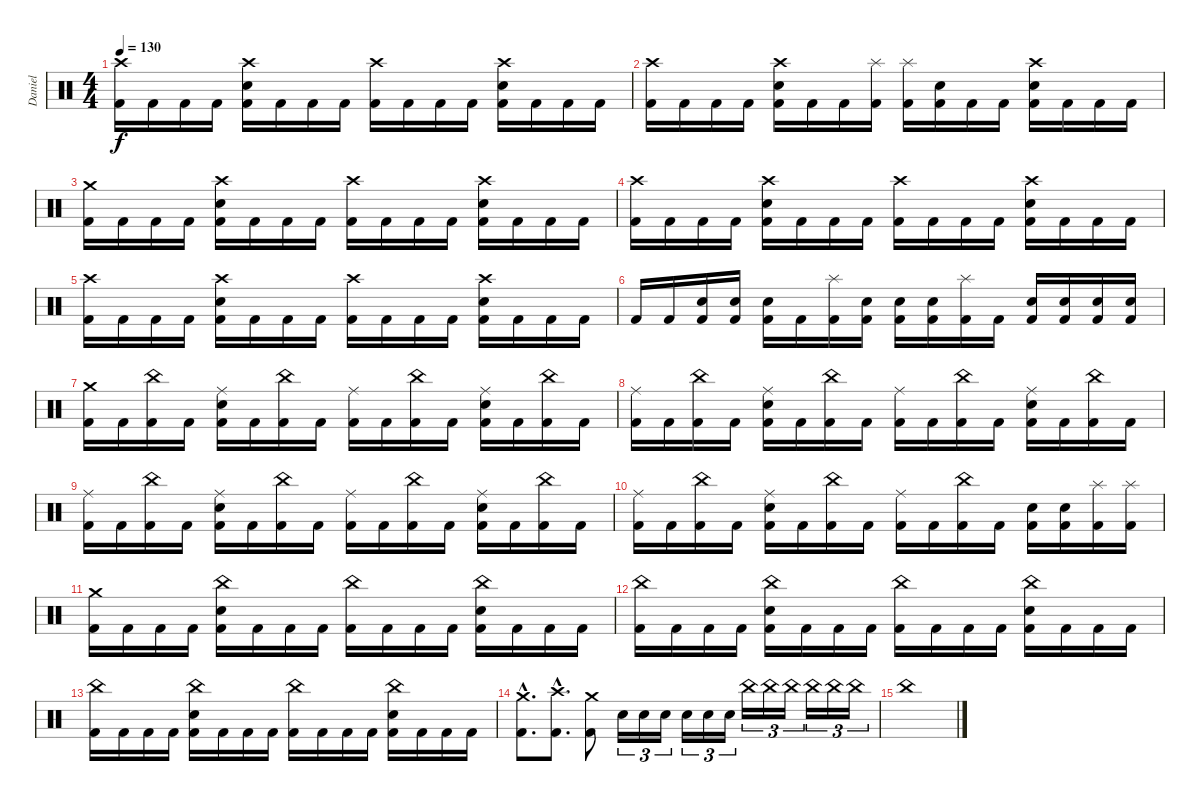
\track ("Daniel" "Daniel") {instrument percussion}
\staff {score}
\articulation defaults
\ts (4 4)
\tempo 130
\clef neutral
\ks c
("Crash high (hit)" "Kick (hit) 2").16{dy f} "Kick (hit) 2".16 "Kick (hit) 2".16 "Kick (hit) 2".16 ("Crash high (hit)" "Electric Snare (hit)" "Kick (hit) 2").16 "Kick (hit) 2".16 "Kick (hit) 2".16 "Kick (hit) 2".16 ("Crash high (hit)" "Kick (hit) 2").16 "Kick (hit) 2".16 "Kick (hit) 2".16 "Kick (hit) 2".16 ("Crash high (hit)" "Electric Snare (hit)" "Kick (hit) 2").16 "Kick (hit) 2".16 "Kick (hit) 2".16 "Kick (hit) 2".16 |
("Crash high (hit)" "Kick (hit) 2").16 "Kick (hit) 2".16 "Kick (hit) 2".16 "Kick (hit) 2".16 ("Crash high (hit)" "Electric Snare (hit)" "Kick (hit) 2").16 "Kick (hit) 2".16 "Kick (hit) 2".16 ("Splash (hit)" "Kick (hit) 2").16 ("Splash (hit)" "Kick (hit) 2").16 ("Electric Snare (hit)" "Kick (hit) 2").16 "Kick (hit) 2".16 "Kick (hit) 2".16 ("Crash high (hit)" "Electric Snare (hit)" "Kick (hit) 2").16 "Kick (hit) 2".16 "Kick (hit) 2".16 "Kick (hit) 2".16 |
("Crash medium (hit)" "Kick (hit) 2").16 "Kick (hit) 2".16 "Kick (hit) 2".16 "Kick (hit) 2".16 ("Crash high (hit)" "Electric Snare (hit)" "Kick (hit) 2").16 "Kick (hit) 2".16 "Kick (hit) 2".16 "Kick (hit) 2".16 ("Crash high (hit)" "Kick (hit) 2").16 "Kick (hit) 2".16 "Kick (hit) 2".16 "Kick (hit) 2".16 ("Crash high (hit)" "Electric Snare (hit)" "Kick (hit) 2").16 "Kick (hit) 2".16 "Kick (hit) 2".16 "Kick (hit) 2".16 |
("Crash high (hit)" "Kick (hit) 2").16 "Kick (hit) 2".16 "Kick (hit) 2".16 "Kick (hit) 2".16 ("Crash high (hit)" "Electric Snare (hit)" "Kick (hit) 2").16 "Kick (hit) 2".16 "Kick (hit) 2".16 "Kick (hit) 2".16 ("Crash high (hit)" "Kick (hit) 2").16 "Kick (hit) 2".16 "Kick (hit) 2".16 "Kick (hit) 2".16 ("Crash high (hit)" "Electric Snare (hit)" "Kick (hit) 2").16 "Kick (hit) 2".16 "Kick (hit) 2".16 "Kick (hit) 2".16 |
("Crash high (hit)" "Kick (hit) 2").16 "Kick (hit) 2".16 "Kick (hit) 2".16 "Kick (hit) 2".16 ("Crash high (hit)" "Electric Snare (hit)" "Kick (hit) 2").16 "Kick (hit) 2".16 "Kick (hit) 2".16 "Kick (hit) 2".16 ("Crash high (hit)" "Kick (hit) 2").16 "Kick (hit) 2".16 "Kick (hit) 2".16 "Kick (hit) 2".16 ("Crash high (hit)" "Electric Snare (hit)" "Kick (hit) 2").16 "Kick (hit) 2".16 "Kick (hit) 2".16 "Kick (hit) 2".16 |
"Kick (hit) 2".16 "Kick (hit) 2".16 ("Electric Snare (hit)" "Kick (hit) 2").16 ("Electric Snare (hit)" "Kick (hit) 2").16 ("Electric Snare (hit)" "Kick (hit) 2").16 "Kick (hit) 2".16 ("Splash (hit)" "Kick (hit) 2").16 ("Electric Snare (hit)" "Kick (hit) 2").16 ("Electric Snare (hit)" "Kick (hit) 2").16 ("Electric Snare (hit)" "Kick (hit) 2").16 ("Splash (hit)" "Kick (hit) 2").16 "Kick (hit) 2".16 ("Electric Snare (hit)" "Kick (hit) 2").16 ("Electric Snare (hit)" "Kick (hit) 2").16 ("Electric Snare (hit)" "Kick (hit) 2").16 ("Electric Snare (hit)" "Kick (hit) 2").16 |
("Crash medium (hit)" "Kick (hit) 2").16 "Kick (hit) 2".16 ("China (hit)" "Kick (hit) 2").16 "Kick (hit) 2".16 ("Ride (middle)" "Electric Snare (hit)" "Kick (hit) 2").16 "Kick (hit) 2".16 ("China (hit)" "Kick (hit) 2").16 "Kick (hit) 2".16 ("Ride (middle)" "Kick (hit) 2").16 "Kick (hit) 2".16 ("China (hit)" "Kick (hit) 2").16 "Kick (hit) 2".16 ("Ride (middle)" "Electric Snare (hit)" "Kick (hit) 2").16 "Kick (hit) 2".16 ("China (hit)" "Kick (hit) 2").16 "Kick (hit) 2".16 |
("Ride (middle)" "Kick (hit) 2").16 "Kick (hit) 2".16 ("China (hit)" "Kick (hit) 2").16 "Kick (hit) 2".16 ("Ride (middle)" "Electric Snare (hit)" "Kick (hit) 2").16 "Kick (hit) 2".16 ("China (hit)" "Kick (hit) 2").16 "Kick (hit) 2".16 ("Ride (middle)" "Kick (hit) 2").16 "Kick (hit) 2".16 ("China (hit)" "Kick (hit) 2").16 "Kick (hit) 2".16 ("Ride (middle)" "Electric Snare (hit)" "Kick (hit) 2").16 "Kick (hit) 2".16 ("China (hit)" "Kick (hit) 2").16 "Kick (hit) 2".16 |
("Ride (middle)" "Kick (hit) 2").16 "Kick (hit) 2".16 ("China (hit)" "Kick (hit) 2").16 "Kick (hit) 2".16 ("Ride (middle)" "Electric Snare (hit)" "Kick (hit) 2").16 "Kick (hit) 2".16 ("China (hit)" "Kick (hit) 2").16 "Kick (hit) 2".16 ("Ride (middle)" "Kick (hit) 2").16 "Kick (hit) 2".16 ("China (hit)" "Kick (hit) 2").16 "Kick (hit) 2".16 ("Ride (middle)" "Electric Snare (hit)" "Kick (hit) 2").16 "Kick (hit) 2".16 ("China (hit)" "Kick (hit) 2").16 "Kick (hit) 2".16 |
("Ride (middle)" "Kick (hit) 2").16 "Kick (hit) 2".16 ("China (hit)" "Kick (hit) 2").16 "Kick (hit) 2".16 ("Ride (middle)" "Electric Snare (hit)" "Kick (hit) 2").16 "Kick (hit) 2".16 ("China (hit)" "Kick (hit) 2").16 "Kick (hit) 2".16 ("Ride (middle)" "Kick (hit) 2").16 "Kick (hit) 2".16 ("China (hit)" "Kick (hit) 2").16 "Kick (hit) 2".16 ("Electric Snare (hit)" "Kick (hit) 2").16 ("Electric Snare (hit)" "Kick (hit) 2").16 ("Splash (hit)" "Kick (hit) 2").16 ("Splash (hit)" "Kick (hit) 2").16 |
("Crash medium (hit)" "Kick (hit) 2").16 "Kick (hit) 2".16 "Kick (hit) 2".16 "Kick (hit) 2".16 ("China (hit)" "Electric Snare (hit)" "Kick (hit) 2").16 "Kick (hit) 2".16 "Kick (hit) 2".16 "Kick (hit) 2".16 ("China (hit)" "Kick (hit) 2").16 "Kick (hit) 2".16 "Kick (hit) 2".16 "Kick (hit) 2".16 ("China (hit)" "Electric Snare (hit)" "Kick (hit) 2").16 "Kick (hit) 2".16 "Kick (hit) 2".16 "Kick (hit) 2".16 |
("China (hit)" "Kick (hit) 2").16 "Kick (hit) 2".16 "Kick (hit) 2".16 "Kick (hit) 2".16 ("China (hit)" "Electric Snare (hit)" "Kick (hit) 2").16 "Kick (hit) 2".16 "Kick (hit) 2".16 "Kick (hit) 2".16 ("China (hit)" "Kick (hit) 2").16 "Kick (hit) 2".16 "Kick (hit) 2".16 "Kick (hit) 2".16 ("China (hit)" "Electric Snare (hit)" "Kick (hit) 2").16 "Kick (hit) 2".16 "Kick (hit) 2".16 "Kick (hit) 2".16 |
("China (hit)" "Kick (hit) 2").16 "Kick (hit) 2".16 "Kick (hit) 2".16 "Kick (hit) 2".16 ("China (hit)" "Electric Snare (hit)" "Kick (hit) 2").16 "Kick (hit) 2".16 "Kick (hit) 2".16 "Kick (hit) 2".16 ("China (hit)" "Kick (hit) 2").16 "Kick (hit) 2".16 "Kick (hit) 2".16 "Kick (hit) 2".16 ("China (hit)" "Electric Snare (hit)" "Kick (hit) 2").16 "Kick (hit) 2".16 "Kick (hit) 2".16 "Kick (hit) 2".16 |
("Crash medium (hit)"{hac} "Kick (hit) 2"{hac}).8{d} ("Crash high (hit)"{hac} "Kick (hit) 2"{hac}).8{d} ("Crash medium (hit)" "Kick (hit) 2").8 "Electric Snare (hit)".16{tu (3 2)} "Electric Snare (hit)".16{tu (3 2)} "Electric Snare (hit)".16{tu (3 2)} "Electric Snare (hit)".16{tu (3 2)} "Electric Snare (hit)".16{tu (3 2)} "Electric Snare (hit)".16{tu (3 2)} "China (hit)".16{tu (3 2)} "China (hit)".16{tu (3 2)} "China (hit)".16{tu (3 2)} "China (hit)".16{tu (3 2)} "China (hit)".16{tu (3 2)} "China (hit)".16{tu (3 2)} |
"China (hit)".1
